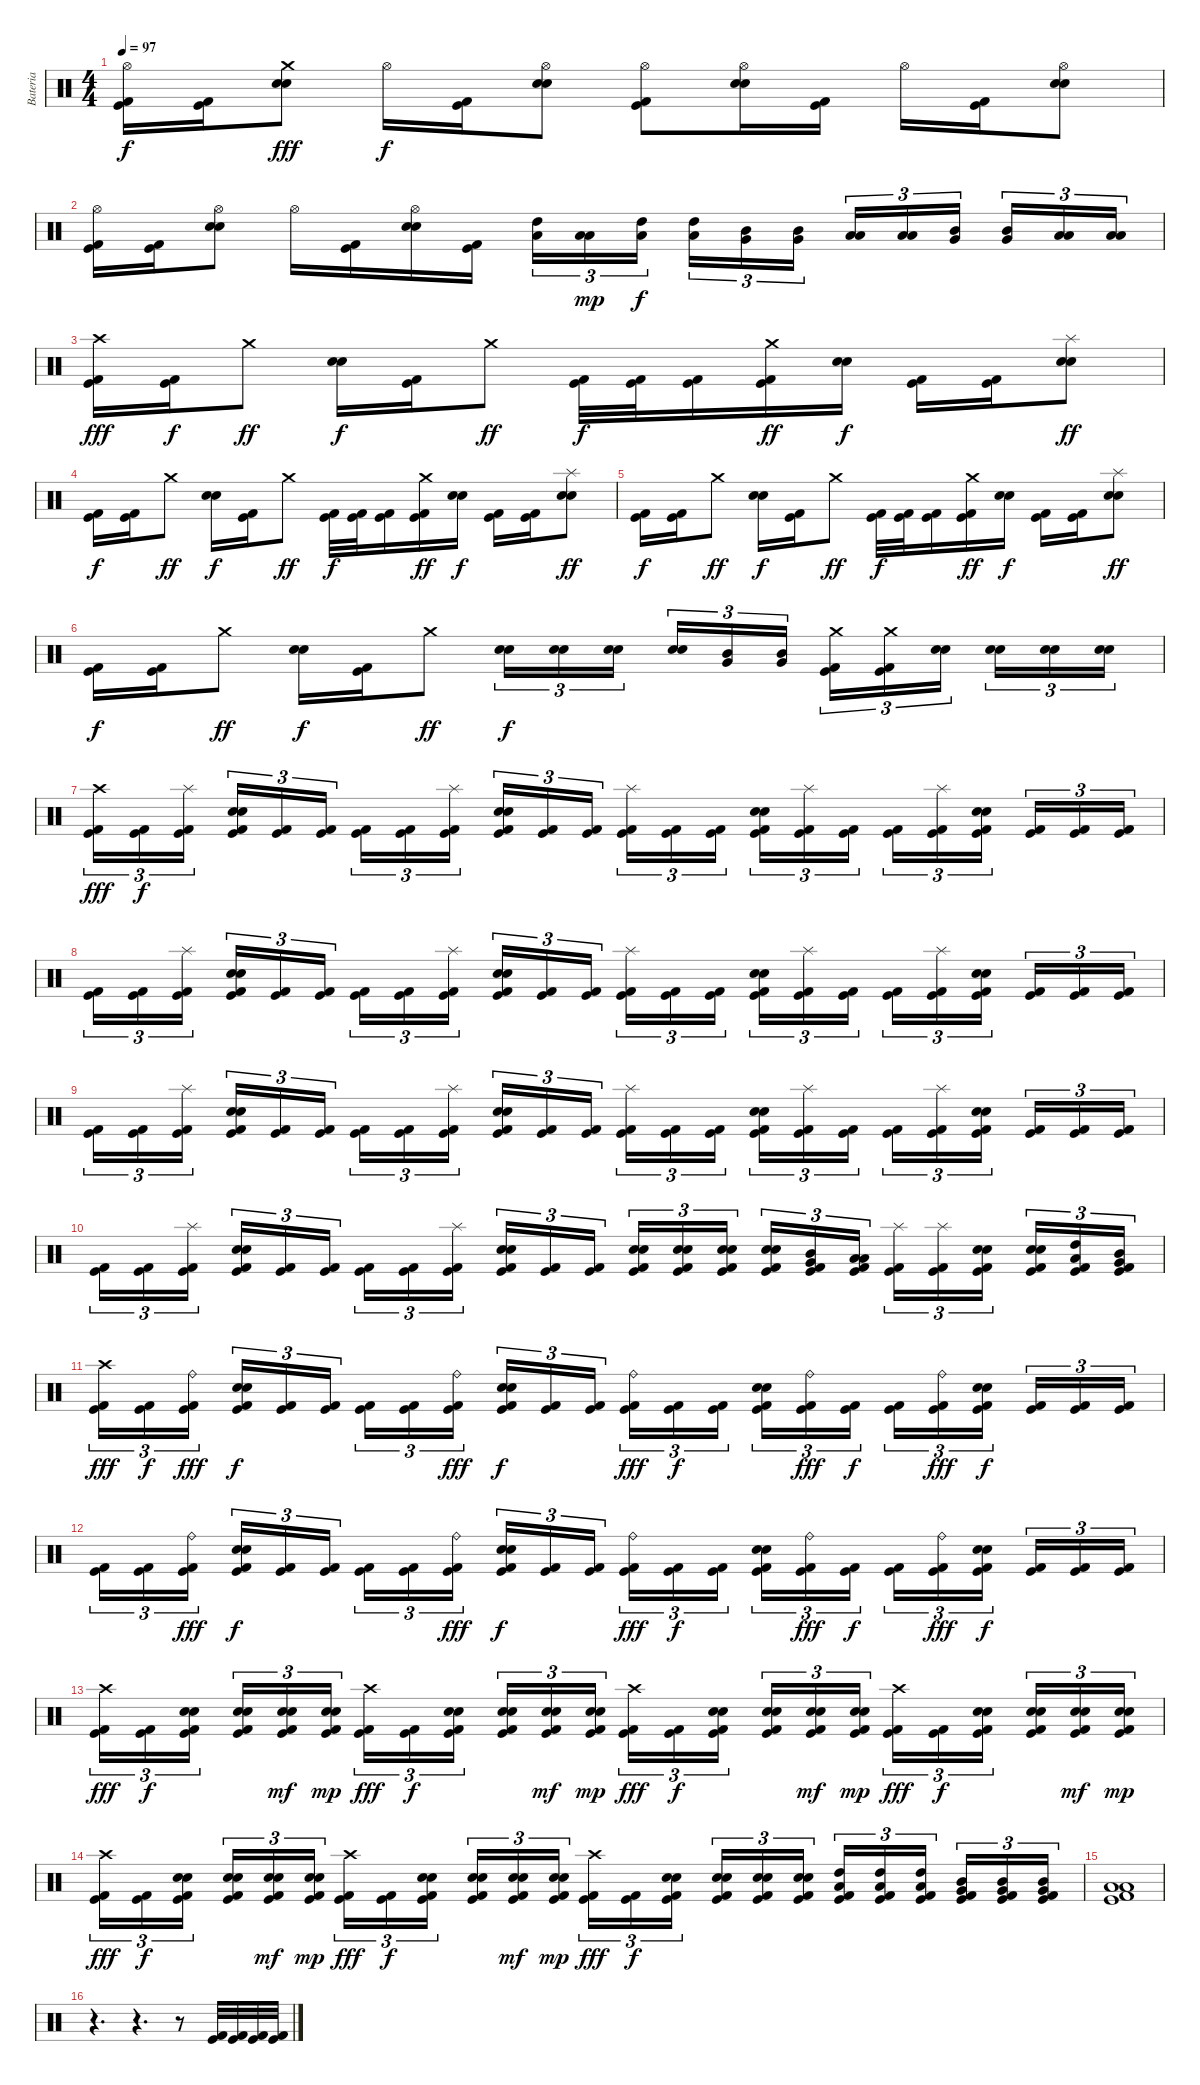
\track ("Bateria" "Bateria") {instrument percussion}
\staff {score}
\articulation defaults
\ts (4 4)
\tempo 97
\clef neutral
\ks c
("Hi-Hat (open)" "Kick (hit) 2" "Kick (hit)").16{dy f} ("Kick (hit) 2" "Kick (hit)").16 ("Crash medium (hit)" "Electric Snare (hit)" "Snare (hit) 2").8{dy fff} "Hi-Hat (open)".16{dy f} ("Kick (hit) 2" "Kick (hit)").16 ("Hi-Hat (open)" "Electric Snare (hit)" "Snare (hit) 2").8 ("Hi-Hat (open)" "Kick (hit) 2" "Kick (hit)").8 ("Hi-Hat (open)" "Electric Snare (hit)" "Snare (hit) 2").16 ("Kick (hit) 2" "Kick (hit)").16 "Hi-Hat (open)".16 ("Kick (hit) 2" "Kick (hit)").16 ("Hi-Hat (open)" "Electric Snare (hit)" "Snare (hit) 2").8 |
("Hi-Hat (open)" "Kick (hit) 2" "Kick (hit)").16 ("Kick (hit) 2" "Kick (hit)").16 ("Hi-Hat (open)" "Electric Snare (hit)" "Snare (hit) 2").8 "Hi-Hat (open)".16 ("Kick (hit) 2" "Kick (hit)").16 ("Hi-Hat (open)" "Electric Snare (hit)" "Snare (hit) 2").16 ("Kick (hit) 2" "Kick (hit)").16 ("High Tom (hit)" "Low Tom (hit)").16{tu (3 2)} ("Low Tom (hit)" "Low Floor Tom (hit)").16{tu (3 2) dy mp} ("High Tom (hit)" "Low Tom (hit)").16{tu (3 2) dy f} ("High Tom (hit)" "Low Tom (hit)").16{tu (3 2)} ("Mid Tom (hit)" "Very Low Tom (hit)").16{tu (3 2)} ("Mid Tom (hit)" "Very Low Tom (hit)").16{tu (3 2)} ("Low Tom (hit)" "Low Floor Tom (hit)").16{tu (3 2)} ("Low Tom (hit)" "Low Floor Tom (hit)").16{tu (3 2)} ("Mid Tom (hit)" "Very Low Tom (hit)").16{tu (3 2)} ("Mid Tom (hit)" "Very Low Tom (hit)").16{tu (3 2)} ("Low Tom (hit)" "Low Floor Tom (hit)").16{tu (3 2)} ("Low Tom (hit)" "Low Floor Tom (hit)").16{tu (3 2)} |
("Crash high (hit)" "Kick (hit) 2" "Kick (hit)").16{dy fff} ("Kick (hit) 2" "Kick (hit)").16{dy f} "Crash medium (hit)".8{dy ff} ("Electric Snare (hit)" "Snare (hit) 2").16{dy f} ("Kick (hit) 2" "Kick (hit)").16 "Crash medium (hit)".8{dy ff} ("Kick (hit) 2" "Kick (hit)").32{dy f} ("Kick (hit) 2" "Kick (hit)").32 ("Kick (hit) 2" "Kick (hit)").16 ("Crash medium (hit)" "Kick (hit) 2" "Kick (hit)").16{dy ff} ("Electric Snare (hit)" "Snare (hit) 2").16{dy f} ("Kick (hit) 2" "Kick (hit)").16 ("Kick (hit) 2" "Kick (hit)").16 ("Splash (hit)" "Electric Snare (hit)" "Snare (hit) 2").8{dy ff} |
("Kick (hit) 2" "Kick (hit)").16{dy f} ("Kick (hit) 2" "Kick (hit)").16 "Crash medium (hit)".8{dy ff} ("Electric Snare (hit)" "Snare (hit) 2").16{dy f} ("Kick (hit) 2" "Kick (hit)").16 "Crash medium (hit)".8{dy ff} ("Kick (hit) 2" "Kick (hit)").32{dy f} ("Kick (hit) 2" "Kick (hit)").32 ("Kick (hit) 2" "Kick (hit)").16 ("Crash medium (hit)" "Kick (hit) 2" "Kick (hit)").16{dy ff} ("Electric Snare (hit)" "Snare (hit) 2").16{dy f} ("Kick (hit) 2" "Kick (hit)").16 ("Kick (hit) 2" "Kick (hit)").16 ("Splash (hit)" "Electric Snare (hit)" "Snare (hit) 2").8{dy ff} |
("Kick (hit) 2" "Kick (hit)").16{dy f} ("Kick (hit) 2" "Kick (hit)").16 "Crash medium (hit)".8{dy ff} ("Electric Snare (hit)" "Snare (hit) 2").16{dy f} ("Kick (hit) 2" "Kick (hit)").16 "Crash medium (hit)".8{dy ff} ("Kick (hit) 2" "Kick (hit)").32{dy f} ("Kick (hit) 2" "Kick (hit)").32 ("Kick (hit) 2" "Kick (hit)").16 ("Crash medium (hit)" "Kick (hit) 2" "Kick (hit)").16{dy ff} ("Electric Snare (hit)" "Snare (hit) 2").16{dy f} ("Kick (hit) 2" "Kick (hit)").16 ("Kick (hit) 2" "Kick (hit)").16 ("Splash (hit)" "Electric Snare (hit)" "Snare (hit) 2").8{dy ff} |
("Kick (hit) 2" "Kick (hit)").16{dy f} ("Kick (hit) 2" "Kick (hit)").16 "Crash medium (hit)".8{dy ff} ("Electric Snare (hit)" "Snare (hit) 2").16{dy f} ("Kick (hit) 2" "Kick (hit)").16 "Crash medium (hit)".8{dy ff} ("Electric Snare (hit)" "Snare (hit) 2").16{tu (3 2) dy f} ("Electric Snare (hit)" "Snare (hit) 2").16{tu (3 2)} ("Electric Snare (hit)" "Snare (hit) 2").16{tu (3 2)} ("Electric Snare (hit)" "Snare (hit) 2").16{tu (3 2)} ("Mid Tom (hit)" "Very Low Tom (hit)").16{tu (3 2)} ("Mid Tom (hit)" "Very Low Tom (hit)").16{tu (3 2)} ("Crash medium (hit)" "Kick (hit) 2" "Kick (hit)").16{tu (3 2)} ("Crash medium (hit)" "Kick (hit) 2" "Kick (hit)").16{tu (3 2)} ("Electric Snare (hit)" "Snare (hit) 2").16{tu (3 2)} ("Electric Snare (hit)" "Snare (hit) 2").16{tu (3 2)} ("Electric Snare (hit)" "Snare (hit) 2").16{tu (3 2)} ("Electric Snare (hit)" "Snare (hit) 2").16{tu (3 2)} |
("Crash high (hit)" "Kick (hit) 2" "Kick (hit)").16{tu (3 2) dy fff} ("Kick (hit) 2" "Kick (hit)").16{tu (3 2) dy f} ("Splash (hit)" "Kick (hit) 2" "Kick (hit)").16{tu (3 2)} ("Electric Snare (hit)" "Snare (hit) 2" "Kick (hit) 2" "Kick (hit)").16{tu (3 2)} ("Kick (hit) 2" "Kick (hit)").16{tu (3 2)} ("Kick (hit) 2" "Kick (hit)").16{tu (3 2)} ("Kick (hit) 2" "Kick (hit)").16{tu (3 2)} ("Kick (hit) 2" "Kick (hit)").16{tu (3 2)} ("Splash (hit)" "Kick (hit) 2" "Kick (hit)").16{tu (3 2)} ("Electric Snare (hit)" "Snare (hit) 2" "Kick (hit) 2" "Kick (hit)").16{tu (3 2)} ("Kick (hit) 2" "Kick (hit)").16{tu (3 2)} ("Kick (hit) 2" "Kick (hit)").16{tu (3 2)} ("Splash (hit)" "Kick (hit) 2" "Kick (hit)").16{tu (3 2)} ("Kick (hit) 2" "Kick (hit)").16{tu (3 2)} ("Kick (hit) 2" "Kick (hit)").16{tu (3 2)} ("Electric Snare (hit)" "Snare (hit) 2" "Kick (hit) 2" "Kick (hit)").16{tu (3 2)} ("Splash (hit)" "Kick (hit) 2" "Kick (hit)").16{tu (3 2)} ("Kick (hit) 2" "Kick (hit)").16{tu (3 2)} ("Kick (hit) 2" "Kick (hit)").16{tu (3 2)} ("Splash (hit)" "Kick (hit) 2" "Kick (hit)").16{tu (3 2)} ("Electric Snare (hit)" "Snare (hit) 2" "Kick (hit) 2" "Kick (hit)").16{tu (3 2)} ("Kick (hit) 2" "Kick (hit)").16{tu (3 2)} ("Kick (hit) 2" "Kick (hit)").16{tu (3 2)} ("Kick (hit) 2" "Kick (hit)").16{tu (3 2)} |
("Kick (hit) 2" "Kick (hit)").16{tu (3 2)} ("Kick (hit) 2" "Kick (hit)").16{tu (3 2)} ("Splash (hit)" "Kick (hit) 2" "Kick (hit)").16{tu (3 2)} ("Electric Snare (hit)" "Snare (hit) 2" "Kick (hit) 2" "Kick (hit)").16{tu (3 2)} ("Kick (hit) 2" "Kick (hit)").16{tu (3 2)} ("Kick (hit) 2" "Kick (hit)").16{tu (3 2)} ("Kick (hit) 2" "Kick (hit)").16{tu (3 2)} ("Kick (hit) 2" "Kick (hit)").16{tu (3 2)} ("Splash (hit)" "Kick (hit) 2" "Kick (hit)").16{tu (3 2)} ("Electric Snare (hit)" "Snare (hit) 2" "Kick (hit) 2" "Kick (hit)").16{tu (3 2)} ("Kick (hit) 2" "Kick (hit)").16{tu (3 2)} ("Kick (hit) 2" "Kick (hit)").16{tu (3 2)} ("Splash (hit)" "Kick (hit) 2" "Kick (hit)").16{tu (3 2)} ("Kick (hit) 2" "Kick (hit)").16{tu (3 2)} ("Kick (hit) 2" "Kick (hit)").16{tu (3 2)} ("Electric Snare (hit)" "Snare (hit) 2" "Kick (hit) 2" "Kick (hit)").16{tu (3 2)} ("Splash (hit)" "Kick (hit) 2" "Kick (hit)").16{tu (3 2)} ("Kick (hit) 2" "Kick (hit)").16{tu (3 2)} ("Kick (hit) 2" "Kick (hit)").16{tu (3 2)} ("Splash (hit)" "Kick (hit) 2" "Kick (hit)").16{tu (3 2)} ("Electric Snare (hit)" "Snare (hit) 2" "Kick (hit) 2" "Kick (hit)").16{tu (3 2)} ("Kick (hit) 2" "Kick (hit)").16{tu (3 2)} ("Kick (hit) 2" "Kick (hit)").16{tu (3 2)} ("Kick (hit) 2" "Kick (hit)").16{tu (3 2)} |
("Kick (hit) 2" "Kick (hit)").16{tu (3 2)} ("Kick (hit) 2" "Kick (hit)").16{tu (3 2)} ("Splash (hit)" "Kick (hit) 2" "Kick (hit)").16{tu (3 2)} ("Electric Snare (hit)" "Snare (hit) 2" "Kick (hit) 2" "Kick (hit)").16{tu (3 2)} ("Kick (hit) 2" "Kick (hit)").16{tu (3 2)} ("Kick (hit) 2" "Kick (hit)").16{tu (3 2)} ("Kick (hit) 2" "Kick (hit)").16{tu (3 2)} ("Kick (hit) 2" "Kick (hit)").16{tu (3 2)} ("Splash (hit)" "Kick (hit) 2" "Kick (hit)").16{tu (3 2)} ("Electric Snare (hit)" "Snare (hit) 2" "Kick (hit) 2" "Kick (hit)").16{tu (3 2)} ("Kick (hit) 2" "Kick (hit)").16{tu (3 2)} ("Kick (hit) 2" "Kick (hit)").16{tu (3 2)} ("Splash (hit)" "Kick (hit) 2" "Kick (hit)").16{tu (3 2)} ("Kick (hit) 2" "Kick (hit)").16{tu (3 2)} ("Kick (hit) 2" "Kick (hit)").16{tu (3 2)} ("Electric Snare (hit)" "Snare (hit) 2" "Kick (hit) 2" "Kick (hit)").16{tu (3 2)} ("Splash (hit)" "Kick (hit) 2" "Kick (hit)").16{tu (3 2)} ("Kick (hit) 2" "Kick (hit)").16{tu (3 2)} ("Kick (hit) 2" "Kick (hit)").16{tu (3 2)} ("Splash (hit)" "Kick (hit) 2" "Kick (hit)").16{tu (3 2)} ("Electric Snare (hit)" "Snare (hit) 2" "Kick (hit) 2" "Kick (hit)").16{tu (3 2)} ("Kick (hit) 2" "Kick (hit)").16{tu (3 2)} ("Kick (hit) 2" "Kick (hit)").16{tu (3 2)} ("Kick (hit) 2" "Kick (hit)").16{tu (3 2)} |
("Kick (hit) 2" "Kick (hit)").16{tu (3 2)} ("Kick (hit) 2" "Kick (hit)").16{tu (3 2)} ("Splash (hit)" "Kick (hit) 2" "Kick (hit)").16{tu (3 2)} ("Electric Snare (hit)" "Snare (hit) 2" "Kick (hit) 2" "Kick (hit)").16{tu (3 2)} ("Kick (hit) 2" "Kick (hit)").16{tu (3 2)} ("Kick (hit) 2" "Kick (hit)").16{tu (3 2)} ("Kick (hit) 2" "Kick (hit)").16{tu (3 2)} ("Kick (hit) 2" "Kick (hit)").16{tu (3 2)} ("Splash (hit)" "Kick (hit) 2" "Kick (hit)").16{tu (3 2)} ("Electric Snare (hit)" "Snare (hit) 2" "Kick (hit) 2" "Kick (hit)").16{tu (3 2)} ("Kick (hit) 2" "Kick (hit)").16{tu (3 2)} ("Kick (hit) 2" "Kick (hit)").16{tu (3 2)} ("Electric Snare (hit)" "Snare (hit) 2" "Kick (hit) 2" "Kick (hit)").16{tu (3 2)} ("Electric Snare (hit)" "Snare (hit) 2" "Kick (hit) 2" "Kick (hit)").16{tu (3 2)} ("Electric Snare (hit)" "Snare (hit) 2" "Kick (hit) 2" "Kick (hit)").16{tu (3 2)} ("Electric Snare (hit)" "Snare (hit) 2" "Kick (hit) 2" "Kick (hit)").16{tu (3 2)} ("Mid Tom (hit)" "Very Low Tom (hit)" "Kick (hit) 2" "Kick (hit)").16{tu (3 2)} ("Low Tom (hit)" "Low Floor Tom (hit)" "Kick (hit) 2" "Kick (hit)").16{tu (3 2)} ("Splash (hit)" "Kick (hit) 2" "Kick (hit)").16{tu (3 2)} ("Splash (hit)" "Kick (hit) 2" "Kick (hit)").16{tu (3 2)} ("Electric Snare (hit)" "Snare (hit) 2" "Kick (hit) 2" "Kick (hit)").16{tu (3 2)} ("Electric Snare (hit)" "Snare (hit) 2" "Kick (hit) 2" "Kick (hit)").16{tu (3 2)} ("High Tom (hit)" "Low Tom (hit)" "Kick (hit) 2" "Kick (hit)").16{tu (3 2)} ("Mid Tom (hit)" "Very Low Tom (hit)" "Kick (hit) 2" "Kick (hit)").16{tu (3 2)} |
("Crash high (hit)" "Kick (hit) 2" "Kick (hit)").16{tu (3 2) dy fff} ("Kick (hit) 2" "Kick (hit)").16{tu (3 2) dy f} ("Ride (bell)" "Kick (hit) 2" "Kick (hit)").16{tu (3 2) dy fff} ("Electric Snare (hit)" "Snare (hit) 2" "Kick (hit) 2" "Kick (hit)").16{tu (3 2) dy f} ("Kick (hit) 2" "Kick (hit)").16{tu (3 2)} ("Kick (hit) 2" "Kick (hit)").16{tu (3 2)} ("Kick (hit) 2" "Kick (hit)").16{tu (3 2)} ("Kick (hit) 2" "Kick (hit)").16{tu (3 2)} ("Ride (bell)" "Kick (hit) 2" "Kick (hit)").16{tu (3 2) dy fff} ("Electric Snare (hit)" "Snare (hit) 2" "Kick (hit) 2" "Kick (hit)").16{tu (3 2) dy f} ("Kick (hit) 2" "Kick (hit)").16{tu (3 2)} ("Kick (hit) 2" "Kick (hit)").16{tu (3 2)} ("Ride (bell)" "Kick (hit) 2" "Kick (hit)").16{tu (3 2) dy fff} ("Kick (hit) 2" "Kick (hit)").16{tu (3 2) dy f} ("Kick (hit) 2" "Kick (hit)").16{tu (3 2)} ("Electric Snare (hit)" "Snare (hit) 2" "Kick (hit) 2" "Kick (hit)").16{tu (3 2)} ("Ride (bell)" "Kick (hit) 2" "Kick (hit)").16{tu (3 2) dy fff} ("Kick (hit) 2" "Kick (hit)").16{tu (3 2) dy f} ("Kick (hit) 2" "Kick (hit)").16{tu (3 2)} ("Ride (bell)" "Kick (hit) 2" "Kick (hit)").16{tu (3 2) dy fff} ("Electric Snare (hit)" "Snare (hit) 2" "Kick (hit) 2" "Kick (hit)").16{tu (3 2) dy f} ("Kick (hit) 2" "Kick (hit)").16{tu (3 2)} ("Kick (hit) 2" "Kick (hit)").16{tu (3 2)} ("Kick (hit) 2" "Kick (hit)").16{tu (3 2)} |
("Kick (hit) 2" "Kick (hit)").16{tu (3 2)} ("Kick (hit) 2" "Kick (hit)").16{tu (3 2)} ("Ride (bell)" "Kick (hit) 2" "Kick (hit)").16{tu (3 2) dy fff} ("Electric Snare (hit)" "Snare (hit) 2" "Kick (hit) 2" "Kick (hit)").16{tu (3 2) dy f} ("Kick (hit) 2" "Kick (hit)").16{tu (3 2)} ("Kick (hit) 2" "Kick (hit)").16{tu (3 2)} ("Kick (hit) 2" "Kick (hit)").16{tu (3 2)} ("Kick (hit) 2" "Kick (hit)").16{tu (3 2)} ("Ride (bell)" "Kick (hit) 2" "Kick (hit)").16{tu (3 2) dy fff} ("Electric Snare (hit)" "Snare (hit) 2" "Kick (hit) 2" "Kick (hit)").16{tu (3 2) dy f} ("Kick (hit) 2" "Kick (hit)").16{tu (3 2)} ("Kick (hit) 2" "Kick (hit)").16{tu (3 2)} ("Ride (bell)" "Kick (hit) 2" "Kick (hit)").16{tu (3 2) dy fff} ("Kick (hit) 2" "Kick (hit)").16{tu (3 2) dy f} ("Kick (hit) 2" "Kick (hit)").16{tu (3 2)} ("Electric Snare (hit)" "Snare (hit) 2" "Kick (hit) 2" "Kick (hit)").16{tu (3 2)} ("Ride (bell)" "Kick (hit) 2" "Kick (hit)").16{tu (3 2) dy fff} ("Kick (hit) 2" "Kick (hit)").16{tu (3 2) dy f} ("Kick (hit) 2" "Kick (hit)").16{tu (3 2)} ("Ride (bell)" "Kick (hit) 2" "Kick (hit)").16{tu (3 2) dy fff} ("Electric Snare (hit)" "Snare (hit) 2" "Kick (hit) 2" "Kick (hit)").16{tu (3 2) dy f} ("Kick (hit) 2" "Kick (hit)").16{tu (3 2)} ("Kick (hit) 2" "Kick (hit)").16{tu (3 2)} ("Kick (hit) 2" "Kick (hit)").16{tu (3 2)} |
("Crash high (hit)" "Kick (hit) 2" "Kick (hit)").16{tu (3 2) dy fff} ("Kick (hit) 2" "Kick (hit)").16{tu (3 2) dy f} ("Electric Snare (hit)" "Snare (hit) 2" "Kick (hit) 2" "Kick (hit)").16{tu (3 2)} ("Electric Snare (hit)" "Snare (hit) 2" "Kick (hit) 2" "Kick (hit)").16{tu (3 2)} ("Electric Snare (hit)" "Snare (hit) 2" "Kick (hit) 2" "Kick (hit)").16{tu (3 2) dy mf} ("Electric Snare (hit)" "Snare (hit) 2" "Kick (hit) 2" "Kick (hit)").16{tu (3 2) dy mp} ("Crash high (hit)" "Kick (hit) 2" "Kick (hit)").16{tu (3 2) dy fff} ("Kick (hit) 2" "Kick (hit)").16{tu (3 2) dy f} ("Electric Snare (hit)" "Snare (hit) 2" "Kick (hit) 2" "Kick (hit)").16{tu (3 2)} ("Electric Snare (hit)" "Snare (hit) 2" "Kick (hit) 2" "Kick (hit)").16{tu (3 2)} ("Electric Snare (hit)" "Snare (hit) 2" "Kick (hit) 2" "Kick (hit)").16{tu (3 2) dy mf} ("Electric Snare (hit)" "Snare (hit) 2" "Kick (hit) 2" "Kick (hit)").16{tu (3 2) dy mp} ("Crash high (hit)" "Kick (hit) 2" "Kick (hit)").16{tu (3 2) dy fff} ("Kick (hit) 2" "Kick (hit)").16{tu (3 2) dy f} ("Electric Snare (hit)" "Snare (hit) 2" "Kick (hit) 2" "Kick (hit)").16{tu (3 2)} ("Electric Snare (hit)" "Snare (hit) 2" "Kick (hit) 2" "Kick (hit)").16{tu (3 2)} ("Electric Snare (hit)" "Snare (hit) 2" "Kick (hit) 2" "Kick (hit)").16{tu (3 2) dy mf} ("Electric Snare (hit)" "Snare (hit) 2" "Kick (hit) 2" "Kick (hit)").16{tu (3 2) dy mp} ("Crash high (hit)" "Kick (hit) 2" "Kick (hit)").16{tu (3 2) dy fff} ("Kick (hit) 2" "Kick (hit)").16{tu (3 2) dy f} ("Electric Snare (hit)" "Snare (hit) 2" "Kick (hit) 2" "Kick (hit)").16{tu (3 2)} ("Electric Snare (hit)" "Snare (hit) 2" "Kick (hit) 2" "Kick (hit)").16{tu (3 2)} ("Electric Snare (hit)" "Snare (hit) 2" "Kick (hit) 2" "Kick (hit)").16{tu (3 2) dy mf} ("Electric Snare (hit)" "Snare (hit) 2" "Kick (hit) 2" "Kick (hit)").16{tu (3 2) dy mp} |
("Crash high (hit)" "Kick (hit) 2" "Kick (hit)").16{tu (3 2) dy fff} ("Kick (hit) 2" "Kick (hit)").16{tu (3 2) dy f} ("Electric Snare (hit)" "Snare (hit) 2" "Kick (hit) 2" "Kick (hit)").16{tu (3 2)} ("Electric Snare (hit)" "Snare (hit) 2" "Kick (hit) 2" "Kick (hit)").16{tu (3 2)} ("Electric Snare (hit)" "Snare (hit) 2" "Kick (hit) 2" "Kick (hit)").16{tu (3 2) dy mf} ("Electric Snare (hit)" "Snare (hit) 2" "Kick (hit) 2" "Kick (hit)").16{tu (3 2) dy mp} ("Crash high (hit)" "Kick (hit) 2" "Kick (hit)").16{tu (3 2) dy fff} ("Kick (hit) 2" "Kick (hit)").16{tu (3 2) dy f} ("Electric Snare (hit)" "Snare (hit) 2" "Kick (hit) 2" "Kick (hit)").16{tu (3 2)} ("Electric Snare (hit)" "Snare (hit) 2" "Kick (hit) 2" "Kick (hit)").16{tu (3 2)} ("Electric Snare (hit)" "Snare (hit) 2" "Kick (hit) 2" "Kick (hit)").16{tu (3 2) dy mf} ("Electric Snare (hit)" "Snare (hit) 2" "Kick (hit) 2" "Kick (hit)").16{tu (3 2) dy mp} ("Crash high (hit)" "Kick (hit) 2" "Kick (hit)").16{tu (3 2) dy fff} ("Kick (hit) 2" "Kick (hit)").16{tu (3 2) dy f} ("Electric Snare (hit)" "Snare (hit) 2" "Kick (hit) 2" "Kick (hit)").16{tu (3 2)} ("Electric Snare (hit)" "Snare (hit) 2" "Kick (hit) 2" "Kick (hit)").16{tu (3 2)} ("Electric Snare (hit)" "Snare (hit) 2" "Kick (hit) 2" "Kick (hit)").16{tu (3 2)} ("Electric Snare (hit)" "Snare (hit) 2" "Kick (hit) 2" "Kick (hit)").16{tu (3 2)} ("High Tom (hit)" "Low Tom (hit)" "Kick (hit) 2" "Kick (hit)").16{tu (3 2)} ("High Tom (hit)" "Low Tom (hit)" "Kick (hit) 2" "Kick (hit)").16{tu (3 2)} ("High Tom (hit)" "Low Tom (hit)" "Kick (hit) 2" "Kick (hit)").16{tu (3 2)} ("Mid Tom (hit)" "Very Low Tom (hit)" "Kick (hit) 2" "Kick (hit)").16{tu (3 2)} ("Mid Tom (hit)" "Very Low Tom (hit)" "Kick (hit) 2" "Kick (hit)").16{tu (3 2)} ("Mid Tom (hit)" "Very Low Tom (hit)" "Kick (hit) 2" "Kick (hit)").16{tu (3 2)} |
("Low Tom (hit)" "Low Floor Tom (hit)" "Kick (hit) 2" "Kick (hit)").1 |
r.4{d} r.4{d} r.8 ("Kick (hit) 2" "Kick (hit)").32 ("Kick (hit) 2" "Kick (hit)").32 ("Kick (hit) 2" "Kick (hit)").32 ("Kick (hit) 2" "Kick (hit)").32
